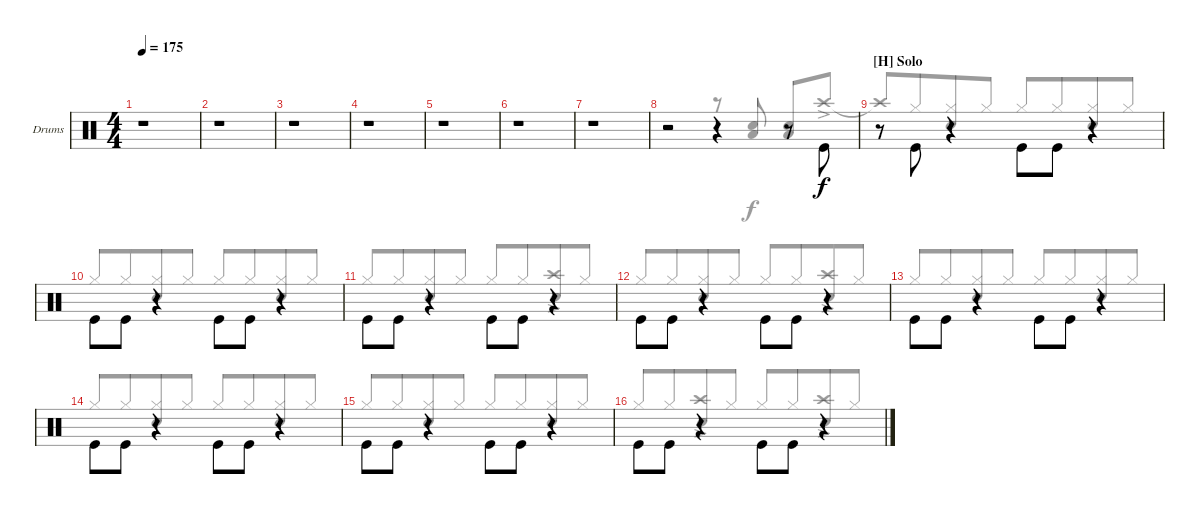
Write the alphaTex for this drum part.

\defaultSystemsLayout 4
\bracketExtendMode groupsimilarinstruments
\firstSystemTrackNameOrientation horizontal
\otherSystemsTrackNameOrientation horizontal
\track ("Drum" "Drums") {instrument percussion}
\staff {score}
\articulation defaults
\voice
\ts (4 4)
\tempo 175
\clef neutral
\scale
1.02648
\ks c
r.1{dy f} |
\scale
0.973518 r.1 |
\scale
1.02648 r.1 |
\scale
0.973518 r.1 |
\scale
1.02648 r.1 |
\scale
0.973518 r.1 |
\scale
1.05675 r.1 |
\scale
0.943253 r.2 r.4 r.8 "Kick (hit)".8{beam invert} |
\section ("H" "Solo")
\scale
1.02648 r.8 "Kick (hit)".8{beam invert} r.4 "Kick (hit)".8{beam invert} "Kick (hit)".8 r.4 |
\scale
0.973518 "Kick (hit)".8{beam invert} "Kick (hit)".8 r.4 "Kick (hit)".8{beam invert} "Kick (hit)".8 r.4 |
\scale
1.02648 "Kick (hit)".8{beam invert} "Kick (hit)".8 r.4 "Kick (hit)".8{beam invert} "Kick (hit)".8 r.4 |
\scale
0.973518 "Kick (hit)".8{beam invert} "Kick (hit)".8 r.4 "Kick (hit)".8{beam invert} "Kick (hit)".8 r.4 |
\scale
1.02648 "Kick (hit)".8{beam invert} "Kick (hit)".8 r.4 "Kick (hit)".8{beam invert} "Kick (hit)".8 r.4 |
\scale
0.973518 "Kick (hit)".8{beam invert} "Kick (hit)".8 r.4 "Kick (hit)".8{beam invert} "Kick (hit)".8 r.4 |
\scale
1.02648 "Kick (hit)".8{beam invert} "Kick (hit)".8 r.4 "Kick (hit)".8{beam invert} "Kick (hit)".8 r.4 |
\scale
0.973518 "Kick (hit)".8{beam invert} "Kick (hit)".8 r.4 "Kick (hit)".8{beam invert} "Kick (hit)".8 r.4
\voice
\clef neutral
\ottava regular
\simile none
\scale
1.02648
\ks c
|
\scale
0.973518 |
\scale
1.02648 |
\scale
0.973518 |
\scale
1.02648 |
\scale
0.973518 |
\scale
1.05675 |
\scale
0.943253 r.2 r.8 ("Snare (hit) 2" "Low Tom (hit)").8{beam invert} ("Snare (hit) 2" "Low Tom (hit)").8{beam invert} "Crash high (hit)"{ac}.8 |
\scale
1.02648 "Crash high (hit)"{t}.8{beam invert beam merge} "Hi-Hat (closed)".8{beam merge} ("Hi-Hat (closed)" "Snare (hit) 2").8{beam merge} "Hi-Hat (closed)".8 "Hi-Hat (closed)".8{beam invert beam merge} "Hi-Hat (closed)".8{beam merge} ("Hi-Hat (closed)" "Snare (hit) 2").8{beam merge} "Hi-Hat (closed)".8 |
\scale
0.973518 "Hi-Hat (closed)".8{beam invert beam merge} "Hi-Hat (closed)".8{beam merge} ("Hi-Hat (closed)" "Snare (hit) 2").8{beam merge} "Hi-Hat (closed)".8 "Hi-Hat (closed)".8{beam invert beam merge} "Hi-Hat (closed)".8{beam merge} ("Hi-Hat (closed)" "Snare (hit) 2").8{beam merge} "Hi-Hat (closed)".8 |
\scale
1.02648 "Hi-Hat (closed)".8{beam invert beam merge} "Hi-Hat (closed)".8{beam merge} ("Hi-Hat (closed)" "Snare (hit) 2").8{beam merge} "Hi-Hat (closed)".8 "Hi-Hat (closed)".8{beam invert beam merge} "Hi-Hat (closed)".8{beam merge} ("Snare (hit) 2" "Crash high (hit)"{ac}).8{beam merge} "Hi-Hat (closed)".8 |
\scale
0.973518 "Hi-Hat (closed)".8{beam invert beam merge} "Hi-Hat (closed)".8{beam merge} ("Hi-Hat (closed)" "Snare (hit) 2").8{beam merge} "Hi-Hat (closed)".8 "Hi-Hat (closed)".8{beam invert beam merge} "Hi-Hat (closed)".8{beam merge} ("Snare (hit) 2" "Crash high (hit)"{ac}).8{beam merge} "Hi-Hat (closed)".8 |
\scale
1.02648 "Hi-Hat (closed)".8{beam invert beam merge} "Hi-Hat (closed)".8{beam merge} ("Hi-Hat (closed)" "Snare (hit) 2").8{beam merge} "Hi-Hat (closed)".8 "Hi-Hat (closed)".8{beam invert beam merge} "Hi-Hat (closed)".8{beam merge} ("Hi-Hat (closed)" "Snare (hit) 2").8{beam merge} "Hi-Hat (closed)".8 |
\scale
0.973518 "Hi-Hat (closed)".8{beam invert beam merge} "Hi-Hat (closed)".8{beam merge} ("Hi-Hat (closed)" "Snare (hit) 2").8{beam merge} "Hi-Hat (closed)".8 "Hi-Hat (closed)".8{beam invert beam merge} "Hi-Hat (closed)".8{beam merge} ("Hi-Hat (closed)" "Snare (hit) 2").8{beam merge} "Hi-Hat (closed)".8 |
\scale
1.02648 "Hi-Hat (closed)".8{beam invert beam merge} "Hi-Hat (closed)".8{beam merge} ("Hi-Hat (closed)" "Snare (hit) 2").8{beam merge} "Hi-Hat (closed)".8 "Hi-Hat (closed)".8{beam invert beam merge} "Hi-Hat (closed)".8{beam merge} ("Hi-Hat (closed)" "Snare (hit) 2").8{beam merge} "Hi-Hat (closed)".8 |
\scale
0.973518 "Hi-Hat (closed)".8{beam invert beam merge} "Hi-Hat (closed)".8{beam merge} ("Snare (hit) 2" "Crash high (hit)"{ac}).8{beam merge} "Hi-Hat (closed)".8 "Hi-Hat (closed)".8{beam invert beam merge} "Hi-Hat (closed)".8{beam merge} ("Snare (hit) 2" "Crash high (hit)"{ac}).8{beam merge} "Hi-Hat (closed)".8
